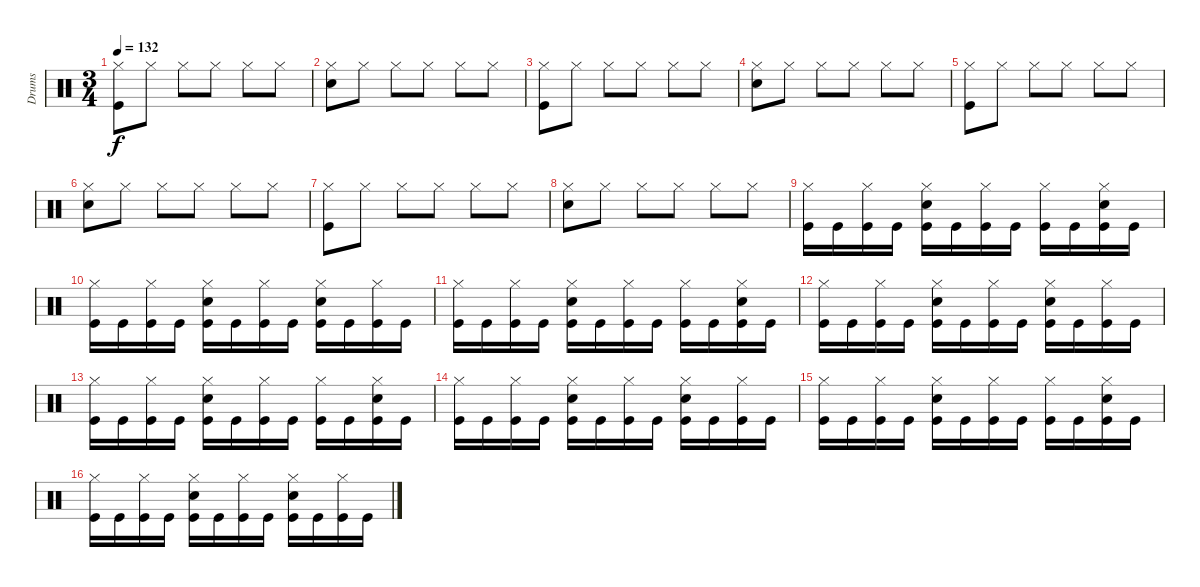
\track ("Drums" "Drums") {instrument percussion}
\staff {score}
\articulation defaults
\ts (3 4)
\tempo 132
\clef neutral
\ks c
("Hi-Hat (closed)" "Kick (hit)").8{dy f} "Hi-Hat (closed)".8 "Hi-Hat (closed)".8 "Hi-Hat (closed)".8 "Hi-Hat (closed)".8 "Hi-Hat (closed)".8 |
("Hi-Hat (closed)" "Snare (hit) 2").8 "Hi-Hat (closed)".8 "Hi-Hat (closed)".8 "Hi-Hat (closed)".8 "Hi-Hat (closed)".8 "Hi-Hat (closed)".8 |
("Hi-Hat (closed)" "Kick (hit)").8 "Hi-Hat (closed)".8 "Hi-Hat (closed)".8 "Hi-Hat (closed)".8 "Hi-Hat (closed)".8 "Hi-Hat (closed)".8 |
("Hi-Hat (closed)" "Snare (hit) 2").8 "Hi-Hat (closed)".8 "Hi-Hat (closed)".8 "Hi-Hat (closed)".8 "Hi-Hat (closed)".8 "Hi-Hat (closed)".8 |
("Hi-Hat (closed)" "Kick (hit)").8 "Hi-Hat (closed)".8 "Hi-Hat (closed)".8 "Hi-Hat (closed)".8 "Hi-Hat (closed)".8 "Hi-Hat (closed)".8 |
("Hi-Hat (closed)" "Snare (hit) 2").8 "Hi-Hat (closed)".8 "Hi-Hat (closed)".8 "Hi-Hat (closed)".8 "Hi-Hat (closed)".8 "Hi-Hat (closed)".8 |
("Hi-Hat (closed)" "Kick (hit)").8 "Hi-Hat (closed)".8 "Hi-Hat (closed)".8 "Hi-Hat (closed)".8 "Hi-Hat (closed)".8 "Hi-Hat (closed)".8 |
("Hi-Hat (closed)" "Snare (hit) 2").8 "Hi-Hat (closed)".8 "Hi-Hat (closed)".8 "Hi-Hat (closed)".8 "Hi-Hat (closed)".8 "Hi-Hat (closed)".8 |
("Hi-Hat (closed)" "Kick (hit)").16 "Kick (hit)".16 ("Hi-Hat (closed)" "Kick (hit)").16 "Kick (hit)".16 ("Hi-Hat (closed)" "Kick (hit)" "Snare (hit) 2").16 "Kick (hit)".16 ("Hi-Hat (closed)" "Kick (hit)").16 "Kick (hit)".16 ("Hi-Hat (closed)" "Kick (hit)").16 "Kick (hit)".16 ("Hi-Hat (closed)" "Kick (hit)" "Snare (hit) 2").16 "Kick (hit)".16 |
("Hi-Hat (closed)" "Kick (hit)").16 "Kick (hit)".16 ("Hi-Hat (closed)" "Kick (hit)").16 "Kick (hit)".16 ("Hi-Hat (closed)" "Kick (hit)" "Snare (hit) 2").16 "Kick (hit)".16 ("Hi-Hat (closed)" "Kick (hit)").16 "Kick (hit)".16 ("Hi-Hat (closed)" "Kick (hit)" "Snare (hit) 2").16 "Kick (hit)".16 ("Hi-Hat (closed)" "Kick (hit)").16 "Kick (hit)".16 |
("Hi-Hat (closed)" "Kick (hit)").16 "Kick (hit)".16 ("Hi-Hat (closed)" "Kick (hit)").16 "Kick (hit)".16 ("Hi-Hat (closed)" "Kick (hit)" "Snare (hit) 2").16 "Kick (hit)".16 ("Hi-Hat (closed)" "Kick (hit)").16 "Kick (hit)".16 ("Hi-Hat (closed)" "Kick (hit)").16 "Kick (hit)".16 ("Hi-Hat (closed)" "Kick (hit)" "Snare (hit) 2").16 "Kick (hit)".16 |
("Hi-Hat (closed)" "Kick (hit)").16 "Kick (hit)".16 ("Hi-Hat (closed)" "Kick (hit)").16 "Kick (hit)".16 ("Hi-Hat (closed)" "Kick (hit)" "Snare (hit) 2").16 "Kick (hit)".16 ("Hi-Hat (closed)" "Kick (hit)").16 "Kick (hit)".16 ("Hi-Hat (closed)" "Kick (hit)" "Snare (hit) 2").16 "Kick (hit)".16 ("Hi-Hat (closed)" "Kick (hit)").16 "Kick (hit)".16 |
("Hi-Hat (closed)" "Kick (hit)").16 "Kick (hit)".16 ("Hi-Hat (closed)" "Kick (hit)").16 "Kick (hit)".16 ("Hi-Hat (closed)" "Kick (hit)" "Snare (hit) 2").16 "Kick (hit)".16 ("Hi-Hat (closed)" "Kick (hit)").16 "Kick (hit)".16 ("Hi-Hat (closed)" "Kick (hit)").16 "Kick (hit)".16 ("Hi-Hat (closed)" "Kick (hit)" "Snare (hit) 2").16 "Kick (hit)".16 |
("Hi-Hat (closed)" "Kick (hit)").16 "Kick (hit)".16 ("Hi-Hat (closed)" "Kick (hit)").16 "Kick (hit)".16 ("Hi-Hat (closed)" "Kick (hit)" "Snare (hit) 2").16 "Kick (hit)".16 ("Hi-Hat (closed)" "Kick (hit)").16 "Kick (hit)".16 ("Hi-Hat (closed)" "Kick (hit)" "Snare (hit) 2").16 "Kick (hit)".16 ("Hi-Hat (closed)" "Kick (hit)").16 "Kick (hit)".16 |
("Hi-Hat (closed)" "Kick (hit)").16 "Kick (hit)".16 ("Hi-Hat (closed)" "Kick (hit)").16 "Kick (hit)".16 ("Hi-Hat (closed)" "Kick (hit)" "Snare (hit) 2").16 "Kick (hit)".16 ("Hi-Hat (closed)" "Kick (hit)").16 "Kick (hit)".16 ("Hi-Hat (closed)" "Kick (hit)").16 "Kick (hit)".16 ("Hi-Hat (closed)" "Kick (hit)" "Snare (hit) 2").16 "Kick (hit)".16 |
("Hi-Hat (closed)" "Kick (hit)").16 "Kick (hit)".16 ("Hi-Hat (closed)" "Kick (hit)").16 "Kick (hit)".16 ("Hi-Hat (closed)" "Kick (hit)" "Snare (hit) 2").16 "Kick (hit)".16 ("Hi-Hat (closed)" "Kick (hit)").16 "Kick (hit)".16 ("Hi-Hat (closed)" "Kick (hit)" "Snare (hit) 2").16 "Kick (hit)".16 ("Hi-Hat (closed)" "Kick (hit)").16 "Kick (hit)".16
